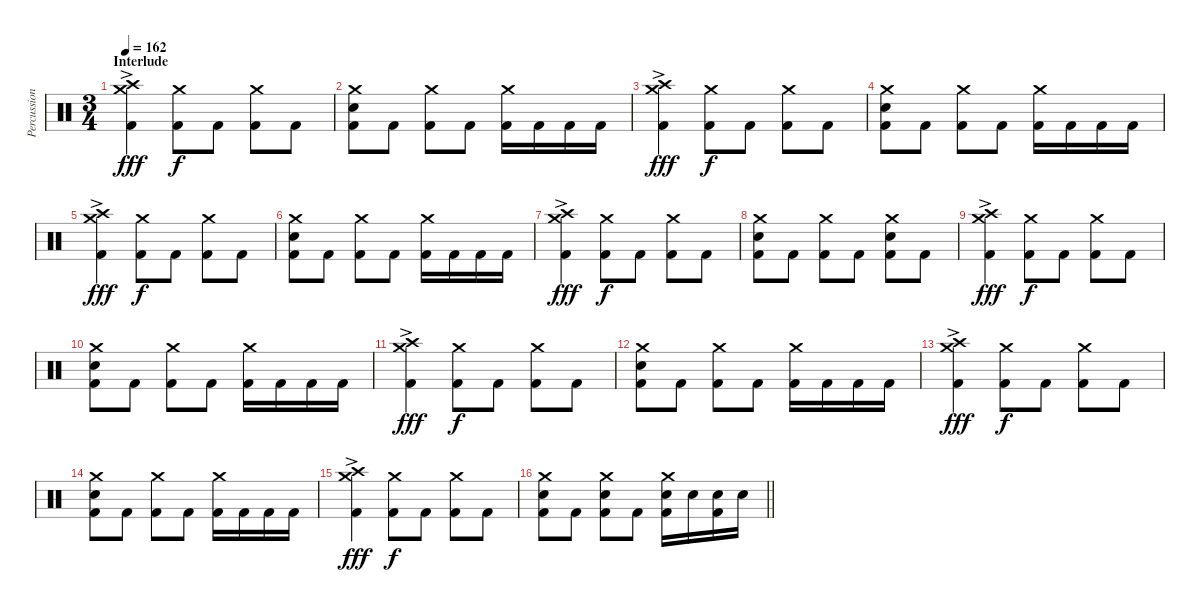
\track ("Percussion" "Percussion") {instrument percussion}
\staff {score}
\articulation defaults
\ts (3 4)
\section ("" "Interlude")
\tempo 162
\clef neutral
\ks c
("Crash high (hit)"{ac} "Crash medium (hit)" "Kick (hit) 2").4{dy fff} ("Crash medium (hit)" "Kick (hit) 2").8{dy f} "Kick (hit) 2".8 ("Crash medium (hit)" "Kick (hit) 2").8 "Kick (hit) 2".8 |
("Crash medium (hit)" "Electric Snare (hit)" "Kick (hit) 2").8 "Kick (hit) 2".8 ("Crash medium (hit)" "Kick (hit) 2").8 "Kick (hit) 2".8 ("Crash medium (hit)" "Kick (hit) 2").16 "Kick (hit) 2".16 "Kick (hit) 2".16 "Kick (hit) 2".16 |
("Crash high (hit)"{ac} "Crash medium (hit)" "Kick (hit) 2").4{dy fff} ("Crash medium (hit)" "Kick (hit) 2").8{dy f} "Kick (hit) 2".8 ("Crash medium (hit)" "Kick (hit) 2").8 "Kick (hit) 2".8 |
("Crash medium (hit)" "Electric Snare (hit)" "Kick (hit) 2").8 "Kick (hit) 2".8 ("Crash medium (hit)" "Kick (hit) 2").8 "Kick (hit) 2".8 ("Crash medium (hit)" "Kick (hit) 2").16 "Kick (hit) 2".16 "Kick (hit) 2".16 "Kick (hit) 2".16 |
("Crash high (hit)"{ac} "Crash medium (hit)" "Kick (hit) 2").4{dy fff} ("Crash medium (hit)" "Kick (hit) 2").8{dy f} "Kick (hit) 2".8 ("Crash medium (hit)" "Kick (hit) 2").8 "Kick (hit) 2".8 |
("Crash medium (hit)" "Electric Snare (hit)" "Kick (hit) 2").8 "Kick (hit) 2".8 ("Crash medium (hit)" "Kick (hit) 2").8 "Kick (hit) 2".8 ("Crash medium (hit)" "Kick (hit) 2").16 "Kick (hit) 2".16 "Kick (hit) 2".16 "Kick (hit) 2".16 |
("Crash high (hit)"{ac} "Crash medium (hit)" "Kick (hit) 2").4{dy fff} ("Crash medium (hit)" "Kick (hit) 2").8{dy f} "Kick (hit) 2".8 ("Crash medium (hit)" "Kick (hit) 2").8 "Kick (hit) 2".8 |
("Crash medium (hit)" "Electric Snare (hit)" "Kick (hit) 2").8 "Kick (hit) 2".8 ("Crash medium (hit)" "Kick (hit) 2").8 "Kick (hit) 2".8 ("Crash medium (hit)" "Electric Snare (hit)" "Kick (hit) 2").8 "Kick (hit) 2".8 |
("Crash high (hit)"{ac} "Crash medium (hit)" "Kick (hit) 2").4{dy fff} ("Crash medium (hit)" "Kick (hit) 2").8{dy f} "Kick (hit) 2".8 ("Crash medium (hit)" "Kick (hit) 2").8 "Kick (hit) 2".8 |
("Crash medium (hit)" "Electric Snare (hit)" "Kick (hit) 2").8 "Kick (hit) 2".8 ("Crash medium (hit)" "Kick (hit) 2").8 "Kick (hit) 2".8 ("Crash medium (hit)" "Kick (hit) 2").16 "Kick (hit) 2".16 "Kick (hit) 2".16 "Kick (hit) 2".16 |
("Crash high (hit)"{ac} "Crash medium (hit)" "Kick (hit) 2").4{dy fff} ("Crash medium (hit)" "Kick (hit) 2").8{dy f} "Kick (hit) 2".8 ("Crash medium (hit)" "Kick (hit) 2").8 "Kick (hit) 2".8 |
("Crash medium (hit)" "Electric Snare (hit)" "Kick (hit) 2").8 "Kick (hit) 2".8 ("Crash medium (hit)" "Kick (hit) 2").8 "Kick (hit) 2".8 ("Crash medium (hit)" "Kick (hit) 2").16 "Kick (hit) 2".16 "Kick (hit) 2".16 "Kick (hit) 2".16 |
("Crash high (hit)"{ac} "Crash medium (hit)" "Kick (hit) 2").4{dy fff} ("Crash medium (hit)" "Kick (hit) 2").8{dy f} "Kick (hit) 2".8 ("Crash medium (hit)" "Kick (hit) 2").8 "Kick (hit) 2".8 |
("Crash medium (hit)" "Electric Snare (hit)" "Kick (hit) 2").8 "Kick (hit) 2".8 ("Crash medium (hit)" "Kick (hit) 2").8 "Kick (hit) 2".8 ("Crash medium (hit)" "Kick (hit) 2").16 "Kick (hit) 2".16 "Kick (hit) 2".16 "Kick (hit) 2".16 |
("Crash high (hit)"{ac} "Crash medium (hit)" "Kick (hit) 2").4{dy fff} ("Crash medium (hit)" "Kick (hit) 2").8{dy f} "Kick (hit) 2".8 ("Crash medium (hit)" "Kick (hit) 2").8 "Kick (hit) 2".8 |
\barLineRight lightlight
("Crash medium (hit)" "Electric Snare (hit)" "Kick (hit) 2").8 "Kick (hit) 2".8 ("Crash medium (hit)" "Electric Snare (hit)" "Kick (hit) 2").8 "Kick (hit) 2".8 ("Crash medium (hit)" "Electric Snare (hit)" "Kick (hit) 2").16 "Electric Snare (hit)".16 ("Electric Snare (hit)" "Kick (hit) 2").16 "Electric Snare (hit)".16
